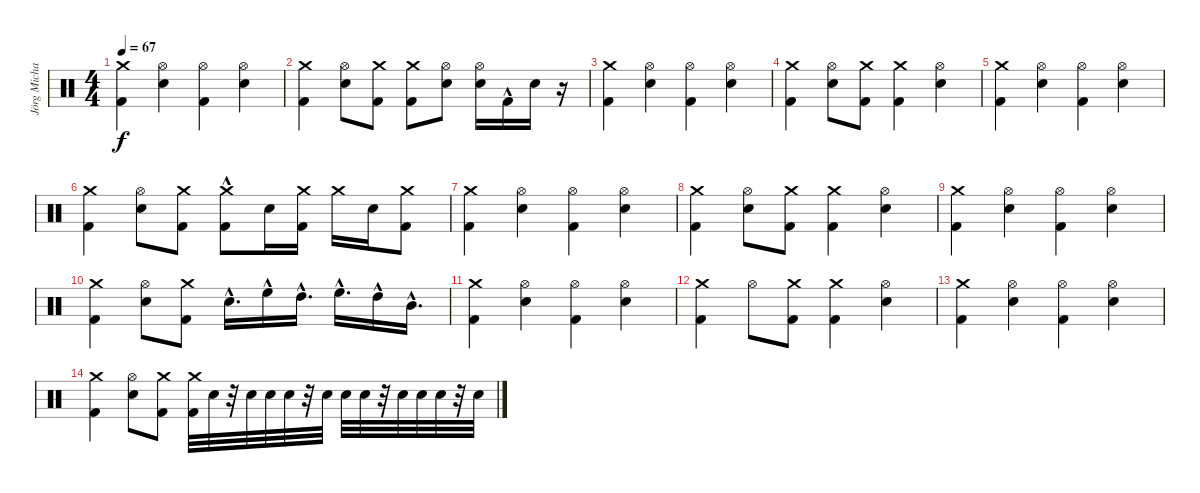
\track ("Jörg Michael" "Jörg Micha") {instrument percussion}
\staff {score}
\articulation defaults
\ts (4 4)
\tempo 67
\clef neutral
\ks c
("Kick (hit) 2" "Crash medium (hit)").4{dy f} ("Snare (hit) 2" "Hi-Hat (open)").4 ("Kick (hit) 2" "Hi-Hat (open)").4 ("Snare (hit) 2" "Hi-Hat (open)").4 |
("Kick (hit) 2" "Crash medium (hit)").4 ("Hi-Hat (open)" "Snare (hit) 2").8 ("Kick (hit) 2" "Crash medium (hit)").8 ("Crash medium (hit)" "Kick (hit) 2").8 ("Hi-Hat (open)" "Snare (hit) 2").8 ("Hi-Hat (open)" "Snare (hit) 2").16 "Kick (hit) 2"{hac}.16 "Snare (hit) 2".16 r.16 |
("Kick (hit) 2" "Crash medium (hit)").4 ("Snare (hit) 2" "Hi-Hat (open)").4 ("Kick (hit) 2" "Hi-Hat (open)").4 ("Snare (hit) 2" "Hi-Hat (open)").4 |
("Kick (hit) 2" "Crash medium (hit)").4 ("Snare (hit) 2" "Hi-Hat (open)").8 ("Kick (hit) 2" "Crash medium (hit)").8 ("Kick (hit) 2" "Crash medium (hit)").4 ("Snare (hit) 2" "Hi-Hat (open)").4 |
("Kick (hit) 2" "Crash medium (hit)").4 ("Snare (hit) 2" "Hi-Hat (open)").4 ("Kick (hit) 2" "Hi-Hat (open)").4 ("Snare (hit) 2" "Hi-Hat (open)").4 |
("Kick (hit) 2" "Crash medium (hit)").4 ("Snare (hit) 2" "Hi-Hat (open)").8 ("Kick (hit) 2" "Crash medium (hit)").8 ("Crash medium (hit)" "Kick (hit) 2"{hac}).8 "Snare (hit) 2".16 ("Crash medium (hit)" "Kick (hit) 2").16 "Crash medium (hit)".16 "Snare (hit) 2".16 ("Crash medium (hit)" "Kick (hit) 2").8 |
("Kick (hit) 2" "Crash medium (hit)").4 ("Snare (hit) 2" "Hi-Hat (open)").4 ("Kick (hit) 2" "Hi-Hat (open)").4 ("Snare (hit) 2" "Hi-Hat (open)").4 |
("Kick (hit) 2" "Crash medium (hit)").4 ("Snare (hit) 2" "Hi-Hat (open)").8 ("Kick (hit) 2" "Crash medium (hit)").8 ("Kick (hit) 2" "Crash medium (hit)").4 ("Snare (hit) 2" "Hi-Hat (open)").4 |
("Kick (hit) 2" "Crash medium (hit)").4 ("Snare (hit) 2" "Hi-Hat (open)").4 ("Kick (hit) 2" "Hi-Hat (open)").4 ("Snare (hit) 2" "Hi-Hat (open)").4 |
("Kick (hit) 2" "Crash medium (hit)").4 ("Hi-Hat (open)" "Snare (hit) 2").8 ("Kick (hit) 2" "Crash medium (hit)").8 "Snare (hit) 2"{hac}.16{d} "High Floor Tom (hit)"{hac}.16 "High Tom (hit)"{hac}.16{d} "High Floor Tom (hit)"{hac}.16{d} "High Tom (hit)"{hac}.16 "Mid Tom (hit)"{hac}.16{d} |
("Kick (hit) 2" "Crash medium (hit)").4{volume 16} ("Snare (hit) 2" "Hi-Hat (open)").4{volume 15} ("Kick (hit) 2" "Hi-Hat (open)").4{volume 14} ("Snare (hit) 2" "Hi-Hat (open)").4{volume 13} |
("Kick (hit) 2" "Crash medium (hit)").4{volume 12} "Hi-Hat (open)".8{volume 12} ("Kick (hit) 2" "Crash medium (hit)").8{volume 11} ("Kick (hit) 2" "Crash medium (hit)").4{volume 11} ("Snare (hit) 2" "Hi-Hat (open)").4{volume 10} |
("Kick (hit) 2" "Crash medium (hit)").4{volume 9} ("Snare (hit) 2" "Hi-Hat (open)").4{volume 8} ("Kick (hit) 2" "Hi-Hat (open)").4{volume 7} ("Snare (hit) 2" "Hi-Hat (open)").4{volume 6} |
("Kick (hit) 2" "Crash medium (hit)").4{volume 5} ("Hi-Hat (open)" "Snare (hit) 2").8{volume 4} ("Kick (hit) 2" "Crash medium (hit)").8{volume 4} ("Crash medium (hit)" "Kick (hit) 2").32{volume 4} "Snare (hit) 2".32{volume 3} r.32 "Snare (hit) 2".32{volume 3} "Snare (hit) 2".32{volume 3} "Snare (hit) 2".32{volume 3} r.32 "Snare (hit) 2".32{volume 3} "Snare (hit) 2".32{volume 3} "Snare (hit) 2".32{volume 2} r.32 "Snare (hit) 2".32{volume 2} "Snare (hit) 2".32{volume 2} "Snare (hit) 2".32{volume 2} r.32 "Snare (hit) 2".32{volume 2}
